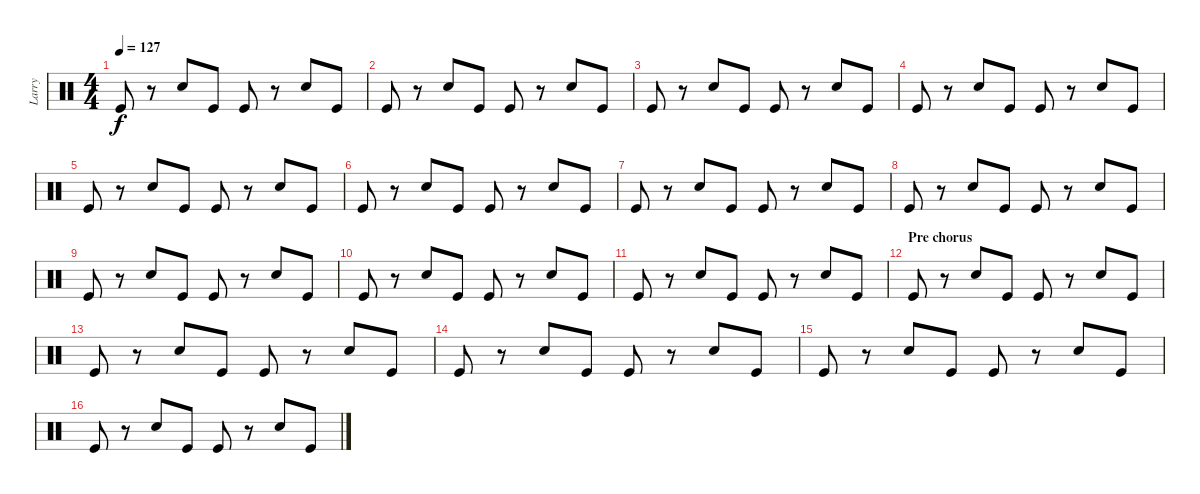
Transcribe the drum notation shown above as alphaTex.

\track ("Larry" "Larry") {instrument percussion}
\staff {score}
\articulation defaults
\ts (4 4)
\tempo 127
\clef neutral
\ks c "Kick (hit)".8{dy f}
r.8 "Snare (hit) 2".8 "Kick (hit)".8 "Kick (hit)".8 r.8 "Snare (hit) 2".8 "Kick (hit)".8 |
"Kick (hit)".8 r.8 "Snare (hit) 2".8 "Kick (hit)".8 "Kick (hit)".8 r.8 "Snare (hit) 2".8 "Kick (hit)".8 |
"Kick (hit)".8 r.8 "Snare (hit) 2".8 "Kick (hit)".8 "Kick (hit)".8 r.8 "Snare (hit) 2".8 "Kick (hit)".8 |
"Kick (hit)".8 r.8 "Snare (hit) 2".8 "Kick (hit)".8 "Kick (hit)".8 r.8 "Snare (hit) 2".8 "Kick (hit)".8 |
"Kick (hit)".8 r.8 "Snare (hit) 2".8 "Kick (hit)".8 "Kick (hit)".8 r.8 "Snare (hit) 2".8 "Kick (hit)".8 |
"Kick (hit)".8 r.8 "Snare (hit) 2".8 "Kick (hit)".8 "Kick (hit)".8 r.8 "Snare (hit) 2".8 "Kick (hit)".8 |
"Kick (hit)".8 r.8 "Snare (hit) 2".8 "Kick (hit)".8 "Kick (hit)".8 r.8 "Snare (hit) 2".8 "Kick (hit)".8 |
"Kick (hit)".8 r.8 "Snare (hit) 2".8 "Kick (hit)".8 "Kick (hit)".8 r.8 "Snare (hit) 2".8 "Kick (hit)".8 |
"Kick (hit)".8 r.8 "Snare (hit) 2".8 "Kick (hit)".8 "Kick (hit)".8 r.8 "Snare (hit) 2".8 "Kick (hit)".8 |
"Kick (hit)".8 r.8 "Snare (hit) 2".8 "Kick (hit)".8 "Kick (hit)".8 r.8 "Snare (hit) 2".8 "Kick (hit)".8 |
"Kick (hit)".8 r.8 "Snare (hit) 2".8 "Kick (hit)".8 "Kick (hit)".8 r.8 "Snare (hit) 2".8 "Kick (hit)".8 |
\section ("" "Pre chorus")
"Kick (hit)".8 r.8 "Snare (hit) 2".8 "Kick (hit)".8 "Kick (hit)".8 r.8 "Snare (hit) 2".8 "Kick (hit)".8 |
"Kick (hit)".8 r.8 "Snare (hit) 2".8 "Kick (hit)".8 "Kick (hit)".8 r.8 "Snare (hit) 2".8 "Kick (hit)".8 |
"Kick (hit)".8 r.8 "Snare (hit) 2".8 "Kick (hit)".8 "Kick (hit)".8 r.8 "Snare (hit) 2".8 "Kick (hit)".8 |
"Kick (hit)".8 r.8 "Snare (hit) 2".8 "Kick (hit)".8 "Kick (hit)".8 r.8 "Snare (hit) 2".8 "Kick (hit)".8 |
"Kick (hit)".8 r.8 "Snare (hit) 2".8 "Kick (hit)".8 "Kick (hit)".8 r.8 "Snare (hit) 2".8 "Kick (hit)".8
